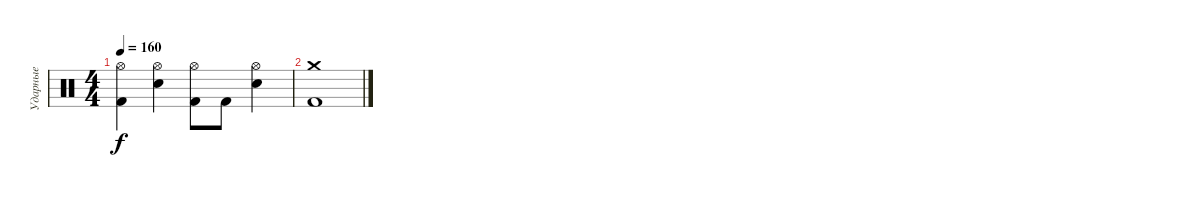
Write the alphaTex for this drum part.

\track ("Ударные" "Ударные") {instrument percussion}
\staff {score}
\articulation defaults
\ts (4 4)
\tempo 160
\clef neutral
\ks c
("Hi-Hat (open)" "Kick (hit) 2").4{dy f} ("Hi-Hat (open)" "Electric Snare (hit)").4 ("Hi-Hat (open)" "Kick (hit) 2").8 "Kick (hit) 2".8 ("Hi-Hat (open)" "Electric Snare (hit)").4 |
("Crash medium (hit)" "Kick (hit) 2").1
